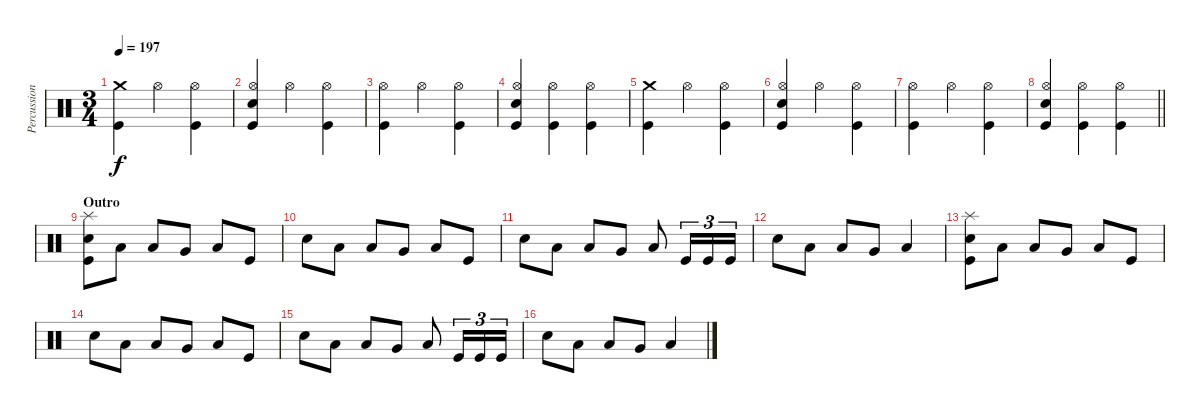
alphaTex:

\track ("Percussion" "Percussion") {instrument percussion}
\staff {score}
\articulation defaults
\ts (3 4)
\tempo 197
\clef neutral
\ks c
("Crash medium (hit)" "Kick (hit)").4{dy f} "Hi-Hat (open)".4 ("Hi-Hat (open)" "Kick (hit)").4 |
("Hi-Hat (open)" "Electric Snare (hit)" "Kick (hit)").4 "Hi-Hat (open)".4 ("Hi-Hat (open)" "Kick (hit)").4 |
("Hi-Hat (open)" "Kick (hit)").4 "Hi-Hat (open)".4 ("Hi-Hat (open)" "Kick (hit)").4 |
("Hi-Hat (open)" "Electric Snare (hit)" "Kick (hit)").4 ("Hi-Hat (open)" "Kick (hit)").4 ("Hi-Hat (open)" "Kick (hit)").4 |
("Crash medium (hit)" "Kick (hit)").4 "Hi-Hat (open)".4 ("Hi-Hat (open)" "Kick (hit)").4 |
("Hi-Hat (open)" "Electric Snare (hit)" "Kick (hit)").4 "Hi-Hat (open)".4 ("Hi-Hat (open)" "Kick (hit)").4 |
("Hi-Hat (open)" "Kick (hit)").4 "Hi-Hat (open)".4 ("Hi-Hat (open)" "Kick (hit)").4 |
\barLineRight lightlight
("Hi-Hat (open)" "Electric Snare (hit)" "Kick (hit)").4 ("Hi-Hat (open)" "Kick (hit)").4 ("Hi-Hat (open)" "Kick (hit)").4 |
\section ("" "Outro")
("Splash (hit)" "Electric Snare (hit)" "Kick (hit)").8 "Low Tom (hit)".8 "Low Tom (hit)".8 "Very Low Tom (hit)".8 "Low Tom (hit)".8 "Kick (hit)".8 |
"Electric Snare (hit)".8 "Low Tom (hit)".8 "Low Tom (hit)".8 "Very Low Tom (hit)".8 "Low Tom (hit)".8 "Kick (hit)".8 |
"Electric Snare (hit)".8 "Low Tom (hit)".8 "Low Tom (hit)".8 "Very Low Tom (hit)".8 "Low Tom (hit)".8 "Kick (hit)".16{tu (3 2)} "Kick (hit)".16{tu (3 2)} "Kick (hit)".16{tu (3 2)} |
"Electric Snare (hit)".8 "Low Tom (hit)".8 "Low Tom (hit)".8 "Very Low Tom (hit)".8 "Low Tom (hit)".4 |
("Splash (hit)" "Electric Snare (hit)" "Kick (hit)").8 "Low Tom (hit)".8 "Low Tom (hit)".8 "Very Low Tom (hit)".8 "Low Tom (hit)".8 "Kick (hit)".8 |
"Electric Snare (hit)".8 "Low Tom (hit)".8 "Low Tom (hit)".8 "Very Low Tom (hit)".8 "Low Tom (hit)".8 "Kick (hit)".8 |
"Electric Snare (hit)".8 "Low Tom (hit)".8 "Low Tom (hit)".8 "Very Low Tom (hit)".8 "Low Tom (hit)".8 "Kick (hit)".16{tu (3 2)} "Kick (hit)".16{tu (3 2)} "Kick (hit)".16{tu (3 2)} |
"Electric Snare (hit)".8 "Low Tom (hit)".8 "Low Tom (hit)".8 "Very Low Tom (hit)".8 "Low Tom (hit)".4
